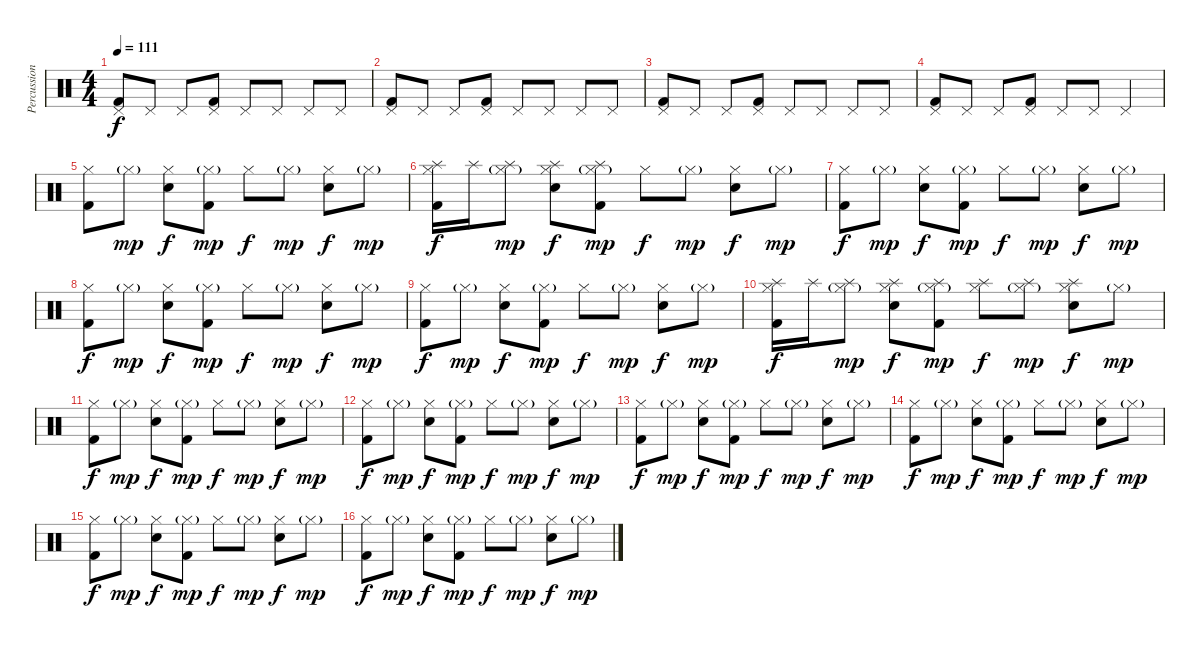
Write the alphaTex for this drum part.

\track ("Percussion" "Percussion") {instrument percussion}
\staff {score}
\articulation defaults
\ts (4 4)
\tempo 111
\clef neutral
\ks c
("Pedal Hi-Hat (hit)" "Kick (hit) 2").8{dy f} "Pedal Hi-Hat (hit)".8 "Pedal Hi-Hat (hit)".8 ("Pedal Hi-Hat (hit)" "Kick (hit) 2").8 "Pedal Hi-Hat (hit)".8 "Pedal Hi-Hat (hit)".8 "Pedal Hi-Hat (hit)".8 "Pedal Hi-Hat (hit)".8 |
("Pedal Hi-Hat (hit)" "Kick (hit) 2").8 "Pedal Hi-Hat (hit)".8 "Pedal Hi-Hat (hit)".8 ("Pedal Hi-Hat (hit)" "Kick (hit) 2").8 "Pedal Hi-Hat (hit)".8 "Pedal Hi-Hat (hit)".8 "Pedal Hi-Hat (hit)".8 "Pedal Hi-Hat (hit)".8 |
("Pedal Hi-Hat (hit)" "Kick (hit) 2").8 "Pedal Hi-Hat (hit)".8 "Pedal Hi-Hat (hit)".8 ("Pedal Hi-Hat (hit)" "Kick (hit) 2").8 "Pedal Hi-Hat (hit)".8 "Pedal Hi-Hat (hit)".8 "Pedal Hi-Hat (hit)".8 "Pedal Hi-Hat (hit)".8 |
("Pedal Hi-Hat (hit)" "Kick (hit) 2").8 "Pedal Hi-Hat (hit)".8 "Pedal Hi-Hat (hit)".8 ("Pedal Hi-Hat (hit)" "Kick (hit) 2").8 "Pedal Hi-Hat (hit)".8 "Pedal Hi-Hat (hit)".8 "Pedal Hi-Hat (hit)".4 |
("Hi-Hat (closed)" "Kick (hit) 2").8 "Hi-Hat (closed)"{g}.8{dy mp} ("Hi-Hat (closed)" "Electric Snare (hit)").8{dy f} ("Hi-Hat (closed)"{g} "Kick (hit) 2").8{dy mp} "Hi-Hat (closed)".8{dy f} "Hi-Hat (closed)"{g}.8{dy mp} ("Hi-Hat (closed)" "Electric Snare (hit)").8{dy f} "Hi-Hat (closed)"{g}.8{dy mp} |
("Splash (hit)" "Hi-Hat (closed)" "Kick (hit) 2").16{dy f} "Splash (hit)".16 ("Splash (hit)" "Hi-Hat (closed)"{g}).8{dy mp} ("Splash (hit)" "Hi-Hat (closed)" "Electric Snare (hit)").8{dy f} ("Splash (hit)" "Hi-Hat (closed)"{g} "Kick (hit) 2").8{dy mp} "Hi-Hat (closed)".8{dy f} "Hi-Hat (closed)"{g}.8{dy mp} ("Hi-Hat (closed)" "Electric Snare (hit)").8{dy f} "Hi-Hat (closed)"{g}.8{dy mp} |
("Hi-Hat (closed)" "Kick (hit) 2").8{dy f} "Hi-Hat (closed)"{g}.8{dy mp} ("Hi-Hat (closed)" "Electric Snare (hit)").8{dy f} ("Hi-Hat (closed)"{g} "Kick (hit) 2").8{dy mp} "Hi-Hat (closed)".8{dy f} "Hi-Hat (closed)"{g}.8{dy mp} ("Hi-Hat (closed)" "Electric Snare (hit)").8{dy f} "Hi-Hat (closed)"{g}.8{dy mp} |
("Hi-Hat (closed)" "Kick (hit) 2").8{dy f} "Hi-Hat (closed)"{g}.8{dy mp} ("Hi-Hat (closed)" "Electric Snare (hit)").8{dy f} ("Hi-Hat (closed)"{g} "Kick (hit) 2").8{dy mp} "Hi-Hat (closed)".8{dy f} "Hi-Hat (closed)"{g}.8{dy mp} ("Hi-Hat (closed)" "Electric Snare (hit)").8{dy f} "Hi-Hat (closed)"{g}.8{dy mp} |
("Hi-Hat (closed)" "Kick (hit) 2").8{dy f} "Hi-Hat (closed)"{g}.8{dy mp} ("Hi-Hat (closed)" "Electric Snare (hit)").8{dy f} ("Hi-Hat (closed)"{g} "Kick (hit) 2").8{dy mp} "Hi-Hat (closed)".8{dy f} "Hi-Hat (closed)"{g}.8{dy mp} ("Hi-Hat (closed)" "Electric Snare (hit)").8{dy f} "Hi-Hat (closed)"{g}.8{dy mp} |
("Splash (hit)" "Hi-Hat (closed)" "Kick (hit) 2").16{dy f} "Splash (hit)".16 ("Splash (hit)" "Hi-Hat (closed)"{g}).8{dy mp} ("Splash (hit)" "Hi-Hat (closed)" "Electric Snare (hit)").8{dy f} ("Splash (hit)" "Hi-Hat (closed)"{g} "Kick (hit) 2").8{dy mp} ("Splash (hit)" "Hi-Hat (closed)").8{dy f} ("Splash (hit)" "Hi-Hat (closed)"{g}).8{dy mp} ("Splash (hit)" "Hi-Hat (closed)" "Electric Snare (hit)").8{dy f} "Hi-Hat (closed)"{g}.8{dy mp} |
("Hi-Hat (closed)" "Kick (hit) 2").8{dy f} "Hi-Hat (closed)"{g}.8{dy mp} ("Hi-Hat (closed)" "Electric Snare (hit)").8{dy f} ("Hi-Hat (closed)"{g} "Kick (hit) 2").8{dy mp} "Hi-Hat (closed)".8{dy f} "Hi-Hat (closed)"{g}.8{dy mp} ("Hi-Hat (closed)" "Electric Snare (hit)").8{dy f} "Hi-Hat (closed)"{g}.8{dy mp} |
("Hi-Hat (closed)" "Kick (hit) 2").8{dy f} "Hi-Hat (closed)"{g}.8{dy mp} ("Hi-Hat (closed)" "Electric Snare (hit)").8{dy f} ("Hi-Hat (closed)"{g} "Kick (hit) 2").8{dy mp} "Hi-Hat (closed)".8{dy f} "Hi-Hat (closed)"{g}.8{dy mp} ("Hi-Hat (closed)" "Electric Snare (hit)").8{dy f} "Hi-Hat (closed)"{g}.8{dy mp} |
("Hi-Hat (closed)" "Kick (hit) 2").8{dy f} "Hi-Hat (closed)"{g}.8{dy mp} ("Hi-Hat (closed)" "Electric Snare (hit)").8{dy f} ("Hi-Hat (closed)"{g} "Kick (hit) 2").8{dy mp} "Hi-Hat (closed)".8{dy f} "Hi-Hat (closed)"{g}.8{dy mp} ("Hi-Hat (closed)" "Electric Snare (hit)").8{dy f} "Hi-Hat (closed)"{g}.8{dy mp} |
("Hi-Hat (closed)" "Kick (hit) 2").8{dy f} "Hi-Hat (closed)"{g}.8{dy mp} ("Hi-Hat (closed)" "Electric Snare (hit)").8{dy f} ("Hi-Hat (closed)"{g} "Kick (hit) 2").8{dy mp} "Hi-Hat (closed)".8{dy f} "Hi-Hat (closed)"{g}.8{dy mp} ("Hi-Hat (closed)" "Electric Snare (hit)").8{dy f} "Hi-Hat (closed)"{g}.8{dy mp} |
("Hi-Hat (closed)" "Kick (hit) 2").8{dy f} "Hi-Hat (closed)"{g}.8{dy mp} ("Hi-Hat (closed)" "Electric Snare (hit)").8{dy f} ("Hi-Hat (closed)"{g} "Kick (hit) 2").8{dy mp} "Hi-Hat (closed)".8{dy f} "Hi-Hat (closed)"{g}.8{dy mp} ("Hi-Hat (closed)" "Electric Snare (hit)").8{dy f} "Hi-Hat (closed)"{g}.8{dy mp} |
("Hi-Hat (closed)" "Kick (hit) 2").8{dy f} "Hi-Hat (closed)"{g}.8{dy mp} ("Hi-Hat (closed)" "Electric Snare (hit)").8{dy f} ("Hi-Hat (closed)"{g} "Kick (hit) 2").8{dy mp} "Hi-Hat (closed)".8{dy f} "Hi-Hat (closed)"{g}.8{dy mp} ("Hi-Hat (closed)" "Electric Snare (hit)").8{dy f} "Hi-Hat (closed)"{g}.8{dy mp}
